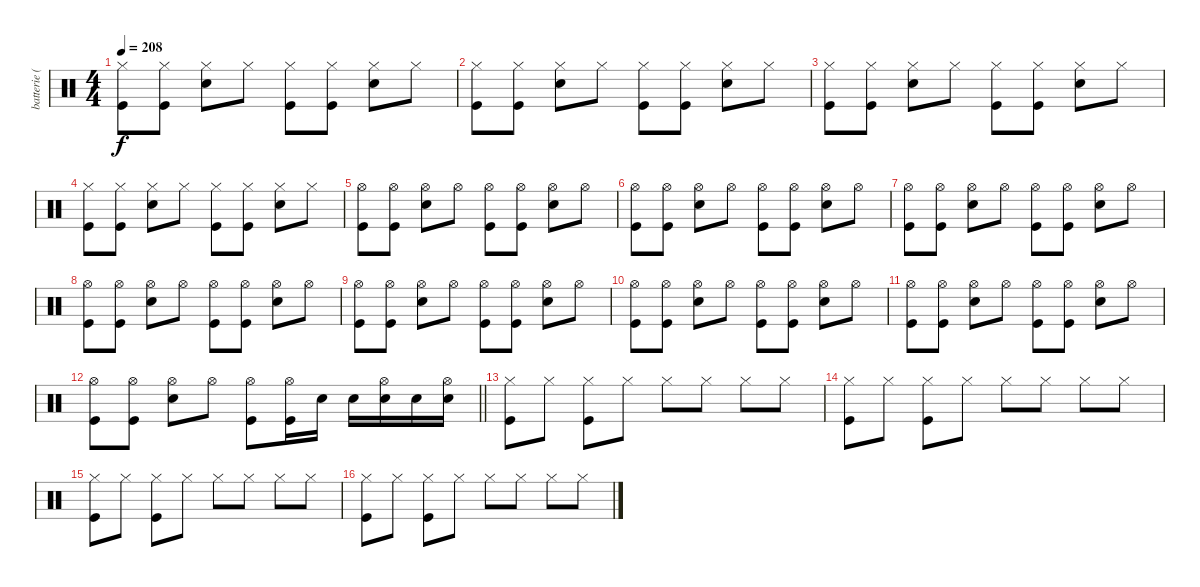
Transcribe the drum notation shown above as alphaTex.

\track ("batterie ( Guillaume ) " "batterie (") {instrument percussion}
\staff {score}
\articulation defaults
\ts (4 4)
\tempo 208
\clef neutral
\ks c
("Hi-Hat (closed)" "Kick (hit)").8{dy f} ("Hi-Hat (closed)" "Kick (hit)").8 ("Hi-Hat (closed)" "Electric Snare (hit)").8 "Hi-Hat (closed)".8 ("Hi-Hat (closed)" "Kick (hit)").8 ("Hi-Hat (closed)" "Kick (hit)").8 ("Hi-Hat (closed)" "Electric Snare (hit)").8 "Hi-Hat (closed)".8 |
("Hi-Hat (closed)" "Kick (hit)").8 ("Hi-Hat (closed)" "Kick (hit)").8 ("Hi-Hat (closed)" "Electric Snare (hit)").8 "Hi-Hat (closed)".8 ("Hi-Hat (closed)" "Kick (hit)").8 ("Hi-Hat (closed)" "Kick (hit)").8 ("Hi-Hat (closed)" "Electric Snare (hit)").8 "Hi-Hat (closed)".8 |
("Hi-Hat (closed)" "Kick (hit)").8 ("Hi-Hat (closed)" "Kick (hit)").8 ("Hi-Hat (closed)" "Electric Snare (hit)").8 "Hi-Hat (closed)".8 ("Hi-Hat (closed)" "Kick (hit)").8 ("Hi-Hat (closed)" "Kick (hit)").8 ("Hi-Hat (closed)" "Electric Snare (hit)").8 "Hi-Hat (closed)".8 |
("Hi-Hat (closed)" "Kick (hit)").8 ("Hi-Hat (closed)" "Kick (hit)").8 ("Hi-Hat (closed)" "Electric Snare (hit)").8 "Hi-Hat (closed)".8 ("Hi-Hat (closed)" "Kick (hit)").8 ("Hi-Hat (closed)" "Kick (hit)").8 ("Hi-Hat (closed)" "Electric Snare (hit)").8 "Hi-Hat (closed)".8 |
("Hi-Hat (open)" "Kick (hit)").8 ("Hi-Hat (open)" "Kick (hit)").8 ("Hi-Hat (open)" "Electric Snare (hit)").8 "Hi-Hat (open)".8 ("Hi-Hat (open)" "Kick (hit)").8 ("Hi-Hat (open)" "Kick (hit)").8 ("Hi-Hat (open)" "Electric Snare (hit)").8 "Hi-Hat (open)".8 |
("Hi-Hat (open)" "Kick (hit)").8 ("Hi-Hat (open)" "Kick (hit)").8 ("Hi-Hat (open)" "Electric Snare (hit)").8 "Hi-Hat (open)".8 ("Hi-Hat (open)" "Kick (hit)").8 ("Hi-Hat (open)" "Kick (hit)").8 ("Hi-Hat (open)" "Electric Snare (hit)").8 "Hi-Hat (open)".8 |
("Hi-Hat (open)" "Kick (hit)").8 ("Hi-Hat (open)" "Kick (hit)").8 ("Hi-Hat (open)" "Electric Snare (hit)").8 "Hi-Hat (open)".8 ("Hi-Hat (open)" "Kick (hit)").8 ("Hi-Hat (open)" "Kick (hit)").8 ("Hi-Hat (open)" "Electric Snare (hit)").8 "Hi-Hat (open)".8 |
("Hi-Hat (open)" "Kick (hit)").8 ("Hi-Hat (open)" "Kick (hit)").8 ("Hi-Hat (open)" "Electric Snare (hit)").8 "Hi-Hat (open)".8 ("Hi-Hat (open)" "Kick (hit)").8 ("Hi-Hat (open)" "Kick (hit)").8 ("Hi-Hat (open)" "Electric Snare (hit)").8 "Hi-Hat (open)".8 |
("Hi-Hat (open)" "Kick (hit)").8 ("Hi-Hat (open)" "Kick (hit)").8 ("Hi-Hat (open)" "Electric Snare (hit)").8 "Hi-Hat (open)".8 ("Hi-Hat (open)" "Kick (hit)").8 ("Hi-Hat (open)" "Kick (hit)").8 ("Hi-Hat (open)" "Electric Snare (hit)").8 "Hi-Hat (open)".8 |
("Hi-Hat (open)" "Kick (hit)").8 ("Hi-Hat (open)" "Kick (hit)").8 ("Hi-Hat (open)" "Electric Snare (hit)").8 "Hi-Hat (open)".8 ("Hi-Hat (open)" "Kick (hit)").8 ("Hi-Hat (open)" "Kick (hit)").8 ("Hi-Hat (open)" "Electric Snare (hit)").8 "Hi-Hat (open)".8 |
("Hi-Hat (open)" "Kick (hit)").8 ("Hi-Hat (open)" "Kick (hit)").8 ("Hi-Hat (open)" "Electric Snare (hit)").8 "Hi-Hat (open)".8 ("Hi-Hat (open)" "Kick (hit)").8 ("Hi-Hat (open)" "Kick (hit)").8 ("Hi-Hat (open)" "Electric Snare (hit)").8 "Hi-Hat (open)".8 |
\barLineRight lightlight
("Hi-Hat (open)" "Kick (hit)").8 ("Hi-Hat (open)" "Kick (hit)").8 ("Hi-Hat (open)" "Electric Snare (hit)").8 "Hi-Hat (open)".8 ("Hi-Hat (open)" "Kick (hit)").8 ("Hi-Hat (open)" "Kick (hit)").16 "Electric Snare (hit)".16 "Electric Snare (hit)".16 ("Hi-Hat (open)" "Electric Snare (hit)").16 "Electric Snare (hit)".16 ("Hi-Hat (open)" "Electric Snare (hit)").16 |
("Hi-Hat (closed)" "Kick (hit)").8 "Hi-Hat (closed)".8 ("Hi-Hat (closed)" "Kick (hit)").8 "Hi-Hat (closed)".8 "Hi-Hat (closed)".8 "Hi-Hat (closed)".8 "Hi-Hat (closed)".8 "Hi-Hat (closed)".8 |
("Hi-Hat (closed)" "Kick (hit)").8 "Hi-Hat (closed)".8 ("Hi-Hat (closed)" "Kick (hit)").8 "Hi-Hat (closed)".8 "Hi-Hat (closed)".8 "Hi-Hat (closed)".8 "Hi-Hat (closed)".8 "Hi-Hat (closed)".8 |
("Hi-Hat (closed)" "Kick (hit)").8 "Hi-Hat (closed)".8 ("Hi-Hat (closed)" "Kick (hit)").8 "Hi-Hat (closed)".8 "Hi-Hat (closed)".8 "Hi-Hat (closed)".8 "Hi-Hat (closed)".8 "Hi-Hat (closed)".8 |
("Hi-Hat (closed)" "Kick (hit)").8 "Hi-Hat (closed)".8 ("Hi-Hat (closed)" "Kick (hit)").8 "Hi-Hat (closed)".8 "Hi-Hat (closed)".8 "Hi-Hat (closed)".8 "Hi-Hat (closed)".8 "Hi-Hat (closed)".8
